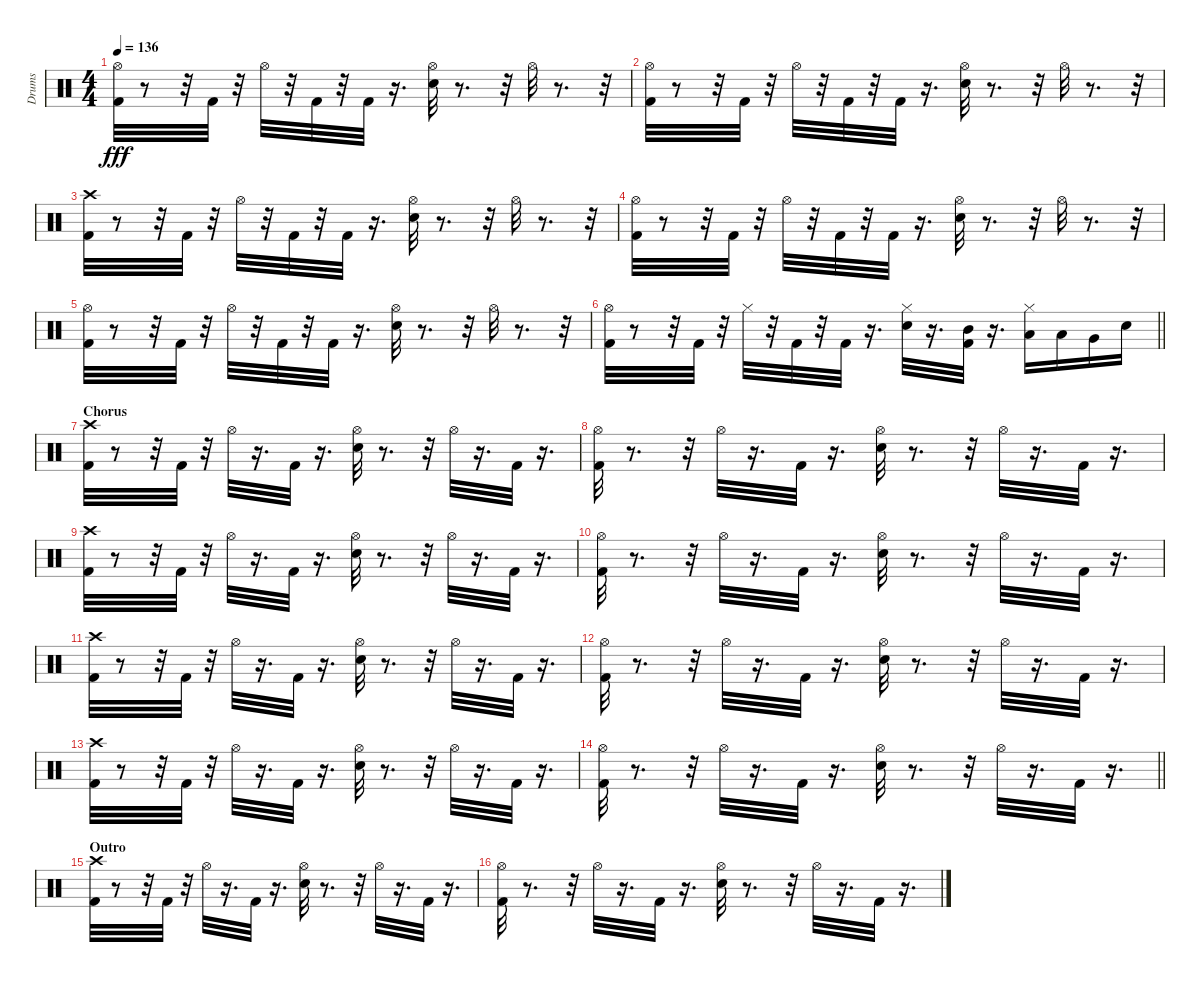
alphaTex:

\track ("Drums" "Drums") {instrument percussion}
\staff {score}
\articulation defaults
\ts (4 4)
\tempo 136
\clef neutral
\ks c
("Hi-Hat (open)" "Kick (hit) 2").32{dy fff} r.8 r.32 "Kick (hit) 2".32 r.32 "Hi-Hat (open)".32 r.32 "Kick (hit) 2".32 r.32 "Kick (hit) 2".32 r.16{d} ("Hi-Hat (open)" "Electric Snare (hit)").32 r.8{d} r.32 "Hi-Hat (open)".32 r.8{d} r.32 |
("Hi-Hat (open)" "Kick (hit) 2").32 r.8 r.32 "Kick (hit) 2".32 r.32 "Hi-Hat (open)".32 r.32 "Kick (hit) 2".32 r.32 "Kick (hit) 2".32 r.16{d} ("Hi-Hat (open)" "Electric Snare (hit)").32 r.8{d} r.32 "Hi-Hat (open)".32 r.8{d} r.32 |
("Crash high (hit)" "Kick (hit) 2").32 r.8 r.32 "Kick (hit) 2".32 r.32 "Hi-Hat (open)".32 r.32 "Kick (hit) 2".32 r.32 "Kick (hit) 2".32 r.16{d} ("Hi-Hat (open)" "Electric Snare (hit)").32 r.8{d} r.32 "Hi-Hat (open)".32 r.8{d} r.32 |
("Hi-Hat (open)" "Kick (hit) 2").32 r.8 r.32 "Kick (hit) 2".32 r.32 "Hi-Hat (open)".32 r.32 "Kick (hit) 2".32 r.32 "Kick (hit) 2".32 r.16{d} ("Hi-Hat (open)" "Electric Snare (hit)").32 r.8{d} r.32 "Hi-Hat (open)".32 r.8{d} r.32 |
("Hi-Hat (open)" "Kick (hit) 2").32 r.8 r.32 "Kick (hit) 2".32 r.32 "Hi-Hat (open)".32 r.32 "Kick (hit) 2".32 r.32 "Kick (hit) 2".32 r.16{d} ("Hi-Hat (open)" "Electric Snare (hit)").32 r.8{d} r.32 "Hi-Hat (open)".32 r.8{d} r.32 |
\barLineRight lightlight
("Kick (hit) 2" "Hi-Hat (open)").32 r.8 r.32 "Kick (hit) 2".32 r.32 "Hi-Hat (closed)".32 r.32 "Kick (hit) 2".32 r.32 "Kick (hit) 2".32 r.16{d} ("Hi-Hat (closed)" "Electric Snare (hit)").32 r.16{d} ("Mid Tom (hit)" "Kick (hit) 2").32 r.16{d} ("Low Tom (hit)" "Hi-Hat (closed)").16 "Low Tom (hit)".16 "Very Low Tom (hit)".16 "Electric Snare (hit)".16 |
\section ("" "Chorus")
("Crash high (hit)" "Kick (hit) 2").32 r.8 r.32 "Kick (hit) 2".32 r.32 "Hi-Hat (open)".32 r.16{d} "Kick (hit) 2".32 r.16{d} ("Hi-Hat (open)" "Electric Snare (hit)").32 r.8{d} r.32 "Hi-Hat (open)".32 r.16{d} "Kick (hit) 2".32 r.16{d} |
("Hi-Hat (open)" "Kick (hit) 2").32 r.8{d} r.32 "Hi-Hat (open)".32 r.16{d} "Kick (hit) 2".32 r.16{d} ("Electric Snare (hit)" "Hi-Hat (open)").32 r.8{d} r.32 "Hi-Hat (open)".32 r.16{d} "Kick (hit) 2".32 r.16{d} |
("Crash high (hit)" "Kick (hit) 2").32 r.8 r.32 "Kick (hit) 2".32 r.32 "Hi-Hat (open)".32 r.16{d} "Kick (hit) 2".32 r.16{d} ("Hi-Hat (open)" "Electric Snare (hit)").32 r.8{d} r.32 "Hi-Hat (open)".32 r.16{d} "Kick (hit) 2".32 r.16{d} |
("Hi-Hat (open)" "Kick (hit) 2").32 r.8{d} r.32 "Hi-Hat (open)".32 r.16{d} "Kick (hit) 2".32 r.16{d} ("Electric Snare (hit)" "Hi-Hat (open)").32 r.8{d} r.32 "Hi-Hat (open)".32 r.16{d} "Kick (hit) 2".32 r.16{d} |
("Crash high (hit)" "Kick (hit) 2").32 r.8 r.32 "Kick (hit) 2".32 r.32 "Hi-Hat (open)".32 r.16{d} "Kick (hit) 2".32 r.16{d} ("Hi-Hat (open)" "Electric Snare (hit)").32 r.8{d} r.32 "Hi-Hat (open)".32 r.16{d} "Kick (hit) 2".32 r.16{d} |
("Hi-Hat (open)" "Kick (hit) 2").32 r.8{d} r.32 "Hi-Hat (open)".32 r.16{d} "Kick (hit) 2".32 r.16{d} ("Electric Snare (hit)" "Hi-Hat (open)").32 r.8{d} r.32 "Hi-Hat (open)".32 r.16{d} "Kick (hit) 2".32 r.16{d} |
("Crash high (hit)" "Kick (hit) 2").32 r.8 r.32 "Kick (hit) 2".32 r.32 "Hi-Hat (open)".32 r.16{d} "Kick (hit) 2".32 r.16{d} ("Hi-Hat (open)" "Electric Snare (hit)").32 r.8{d} r.32 "Hi-Hat (open)".32 r.16{d} "Kick (hit) 2".32 r.16{d} |
\barLineRight lightlight
("Hi-Hat (open)" "Kick (hit) 2").32 r.8{d} r.32 "Hi-Hat (open)".32 r.16{d} "Kick (hit) 2".32 r.16{d} ("Electric Snare (hit)" "Hi-Hat (open)").32 r.8{d} r.32 "Hi-Hat (open)".32 r.16{d} "Kick (hit) 2".32 r.16{d} |
\section ("" "Outro")
("Crash high (hit)" "Kick (hit) 2").32 r.8 r.32 "Kick (hit) 2".32 r.32 "Hi-Hat (open)".32 r.16{d} "Kick (hit) 2".32 r.16{d} ("Hi-Hat (open)" "Electric Snare (hit)").32 r.8{d} r.32 "Hi-Hat (open)".32 r.16{d} "Kick (hit) 2".32 r.16{d} |
("Hi-Hat (open)" "Kick (hit) 2").32 r.8{d} r.32 "Hi-Hat (open)".32 r.16{d} "Kick (hit) 2".32 r.16{d} ("Electric Snare (hit)" "Hi-Hat (open)").32 r.8{d} r.32 "Hi-Hat (open)".32 r.16{d} "Kick (hit) 2".32 r.16{d}
